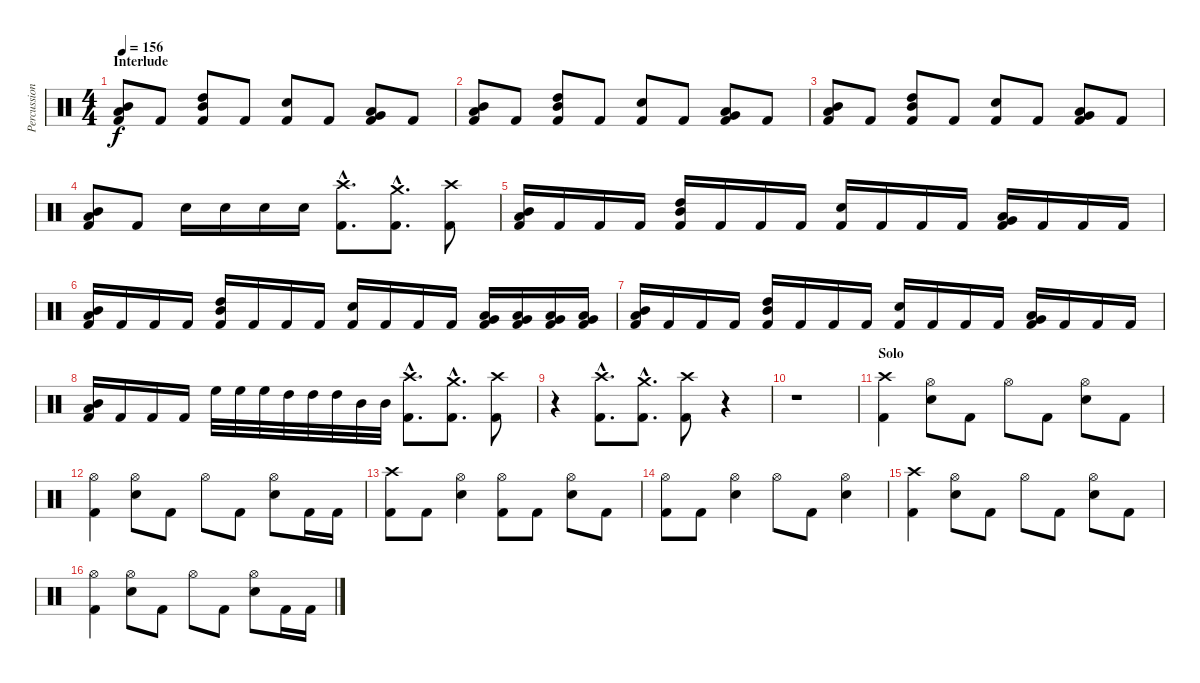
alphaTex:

\track ("Percussion" "Percussion") {instrument percussion}
\staff {score}
\articulation defaults
\ts (4 4)
\section ("" "Interlude")
\tempo 156
\clef neutral
\ks c
("Mid Tom (hit)" "Low Tom (hit)" "Kick (hit) 2").8{dy f} "Kick (hit) 2".8 ("High Tom (hit)" "Mid Tom (hit)" "Kick (hit) 2").8 "Kick (hit) 2".8 ("Electric Snare (hit)" "Kick (hit) 2").8 "Kick (hit) 2".8 ("Low Tom (hit)" "Very Low Tom (hit)" "Kick (hit) 2").8 "Kick (hit) 2".8 |
("Mid Tom (hit)" "Low Tom (hit)" "Kick (hit) 2").8 "Kick (hit) 2".8 ("High Tom (hit)" "Mid Tom (hit)" "Kick (hit) 2").8 "Kick (hit) 2".8 ("Electric Snare (hit)" "Kick (hit) 2").8 "Kick (hit) 2".8 ("Low Tom (hit)" "Very Low Tom (hit)" "Kick (hit) 2").8 "Kick (hit) 2".8 |
("Mid Tom (hit)" "Low Tom (hit)" "Kick (hit) 2").8 "Kick (hit) 2".8 ("High Tom (hit)" "Mid Tom (hit)" "Kick (hit) 2").8 "Kick (hit) 2".8 ("Electric Snare (hit)" "Kick (hit) 2").8 "Kick (hit) 2".8 ("Low Tom (hit)" "Very Low Tom (hit)" "Kick (hit) 2").8 "Kick (hit) 2".8 |
("Mid Tom (hit)" "Low Tom (hit)" "Kick (hit) 2").8 "Kick (hit) 2".8 "Electric Snare (hit)".16 "Electric Snare (hit)".16 "Electric Snare (hit)".16 "Electric Snare (hit)".16 ("Crash high (hit)"{hac} "Kick (hit) 2"{hac}).8{d} ("Crash medium (hit)"{hac} "Kick (hit) 2"{hac}).8{d} ("Crash high (hit)" "Kick (hit) 2").8 |
("Mid Tom (hit)" "Low Tom (hit)" "Kick (hit) 2").16 "Kick (hit) 2".16 "Kick (hit) 2".16 "Kick (hit) 2".16 ("High Tom (hit)" "Mid Tom (hit)" "Kick (hit) 2").16 "Kick (hit) 2".16 "Kick (hit) 2".16 "Kick (hit) 2".16 ("Electric Snare (hit)" "Kick (hit) 2").16 "Kick (hit) 2".16 "Kick (hit) 2".16 "Kick (hit) 2".16 ("Low Tom (hit)" "Very Low Tom (hit)" "Kick (hit) 2").16 "Kick (hit) 2".16 "Kick (hit) 2".16 "Kick (hit) 2".16 |
("Mid Tom (hit)" "Low Tom (hit)" "Kick (hit) 2").16 "Kick (hit) 2".16 "Kick (hit) 2".16 "Kick (hit) 2".16 ("High Tom (hit)" "Mid Tom (hit)" "Kick (hit) 2").16 "Kick (hit) 2".16 "Kick (hit) 2".16 "Kick (hit) 2".16 ("Electric Snare (hit)" "Kick (hit) 2").16 "Kick (hit) 2".16 "Kick (hit) 2".16 "Kick (hit) 2".16 ("Low Tom (hit)" "Very Low Tom (hit)" "Kick (hit) 2").16 ("Low Tom (hit)" "Very Low Tom (hit)" "Kick (hit) 2").16 ("Low Tom (hit)" "Very Low Tom (hit)" "Kick (hit) 2").16 ("Low Tom (hit)" "Very Low Tom (hit)" "Kick (hit) 2").16 |
("Mid Tom (hit)" "Low Tom (hit)" "Kick (hit) 2").16 "Kick (hit) 2".16 "Kick (hit) 2".16 "Kick (hit) 2".16 ("High Tom (hit)" "Mid Tom (hit)" "Kick (hit) 2").16 "Kick (hit) 2".16 "Kick (hit) 2".16 "Kick (hit) 2".16 ("Electric Snare (hit)" "Kick (hit) 2").16 "Kick (hit) 2".16 "Kick (hit) 2".16 "Kick (hit) 2".16 ("Low Tom (hit)" "Very Low Tom (hit)" "Kick (hit) 2").16 "Kick (hit) 2".16 "Kick (hit) 2".16 "Kick (hit) 2".16 |
("Mid Tom (hit)" "Low Tom (hit)" "Kick (hit) 2").16 "Kick (hit) 2".16 "Kick (hit) 2".16 "Kick (hit) 2".16 "High Floor Tom (hit)".32 "High Floor Tom (hit)".32 "High Floor Tom (hit)".32 "High Tom (hit)".32 "High Tom (hit)".32 "High Tom (hit)".32 "Mid Tom (hit)".32 "Mid Tom (hit)".32 ("Crash high (hit)"{hac} "Kick (hit) 2"{hac}).8{d} ("Crash medium (hit)"{hac} "Kick (hit) 2"{hac}).8{d} ("Crash high (hit)" "Kick (hit) 2").8 |
r.4 ("Crash high (hit)"{hac} "Kick (hit) 2"{hac}).8{d} ("Crash medium (hit)"{hac} "Kick (hit) 2"{hac}).8{d} ("Crash high (hit)" "Kick (hit) 2").8 r.4 |
r.1 |
\section ("" "Solo")
("Crash high (hit)" "Kick (hit) 2").4 ("Hi-Hat (open)" "Electric Snare (hit)").8 "Kick (hit) 2".8 "Hi-Hat (open)".8 "Kick (hit) 2".8 ("Hi-Hat (open)" "Electric Snare (hit)").8 "Kick (hit) 2".8 |
("Hi-Hat (open)" "Kick (hit) 2").4 ("Hi-Hat (open)" "Electric Snare (hit)").8 "Kick (hit) 2".8 "Hi-Hat (open)".8 "Kick (hit) 2".8 ("Hi-Hat (open)" "Electric Snare (hit)").8 "Kick (hit) 2".16 "Kick (hit) 2".16 |
("Crash high (hit)" "Kick (hit) 2").8 "Kick (hit) 2".8 ("Hi-Hat (open)" "Electric Snare (hit)").4 ("Hi-Hat (open)" "Kick (hit) 2").8 "Kick (hit) 2".8 ("Hi-Hat (open)" "Electric Snare (hit)").8 "Kick (hit) 2".8 |
("Hi-Hat (open)" "Kick (hit) 2").8 "Kick (hit) 2".8 ("Hi-Hat (open)" "Electric Snare (hit)").4 "Hi-Hat (open)".8 "Kick (hit) 2".8 ("Hi-Hat (open)" "Electric Snare (hit)").4 |
("Crash high (hit)" "Kick (hit) 2").4 ("Hi-Hat (open)" "Electric Snare (hit)").8 "Kick (hit) 2".8 "Hi-Hat (open)".8 "Kick (hit) 2".8 ("Hi-Hat (open)" "Electric Snare (hit)").8 "Kick (hit) 2".8 |
("Hi-Hat (open)" "Kick (hit) 2").4 ("Hi-Hat (open)" "Electric Snare (hit)").8 "Kick (hit) 2".8 "Hi-Hat (open)".8 "Kick (hit) 2".8 ("Hi-Hat (open)" "Electric Snare (hit)").8 "Kick (hit) 2".16 "Kick (hit) 2".16
